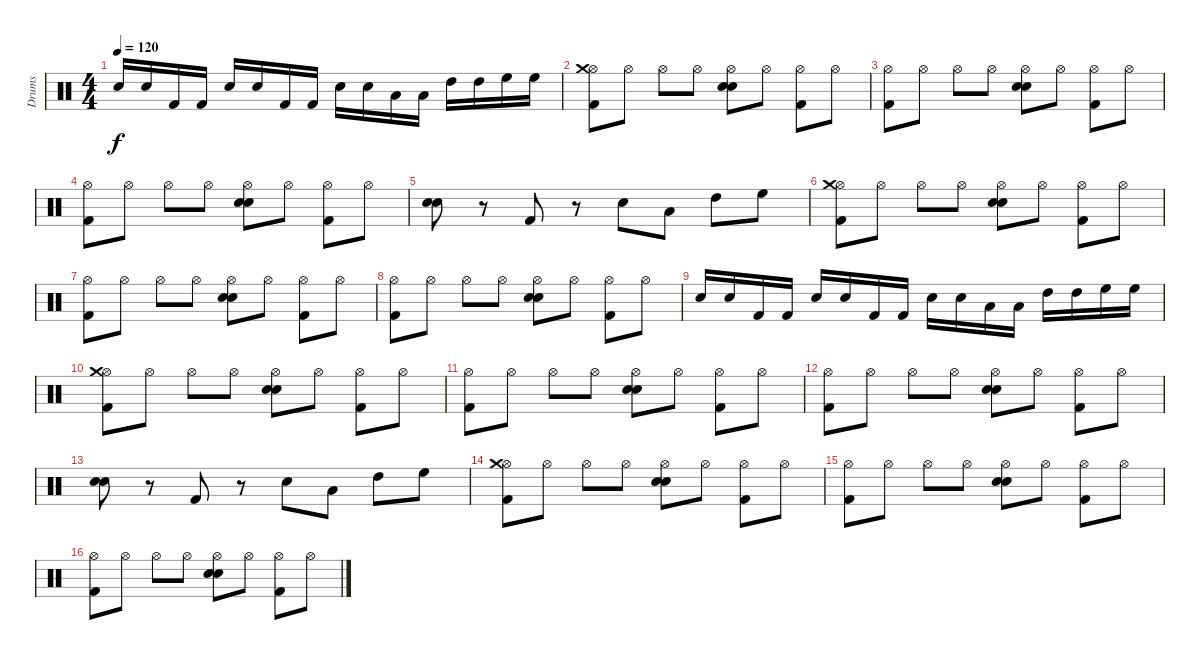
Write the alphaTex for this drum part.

\track ("Drums" "Drums") {instrument percussion}
\staff {score}
\articulation defaults
\ts (4 4)
\tempo 120
\clef neutral
\ks c "Snare (hit) 2".16{dy f} "Snare (hit) 2".16 "Kick (hit) 2".16 "Kick (hit) 2".16 "Snare (hit) 2".16 "Snare (hit) 2".16 "Kick (hit) 2".16 "Kick (hit) 2".16 "Snare (hit) 2".16 "Snare (hit) 2".16 "Low Tom (hit)".16 "Low Tom (hit)".16 "High Tom (hit)".16 "High Tom (hit)".16 "High Floor Tom (hit)".16 "High Floor Tom (hit)".16
|
("Hi-Hat (open)" "Kick (hit) 2" "Crash medium (hit)").8 "Hi-Hat (open)".8 "Hi-Hat (open)".8 "Hi-Hat (open)".8 ("Hi-Hat (open)" "Snare (hit) 2" "Electric Snare (hit)").8 "Hi-Hat (open)".8 ("Hi-Hat (open)" "Kick (hit) 2").8 "Hi-Hat (open)".8 |
("Hi-Hat (open)" "Kick (hit) 2").8 "Hi-Hat (open)".8 "Hi-Hat (open)".8 "Hi-Hat (open)".8 ("Hi-Hat (open)" "Snare (hit) 2" "Electric Snare (hit)").8 "Hi-Hat (open)".8 ("Hi-Hat (open)" "Kick (hit) 2").8 "Hi-Hat (open)".8 |
("Hi-Hat (open)" "Kick (hit) 2").8 "Hi-Hat (open)".8 "Hi-Hat (open)".8 "Hi-Hat (open)".8 ("Hi-Hat (open)" "Snare (hit) 2" "Electric Snare (hit)").8 "Hi-Hat (open)".8 ("Hi-Hat (open)" "Kick (hit) 2").8 "Hi-Hat (open)".8 |
("Snare (hit) 2" "Electric Snare (hit)").8 r.8 "Kick (hit) 2".8 r.8 "Snare (hit) 2".8 "Low Tom (hit)".8 "High Tom (hit)".8 "High Floor Tom (hit)".8 |
("Hi-Hat (open)" "Kick (hit) 2" "Crash medium (hit)").8 "Hi-Hat (open)".8 "Hi-Hat (open)".8 "Hi-Hat (open)".8 ("Hi-Hat (open)" "Snare (hit) 2" "Electric Snare (hit)").8 "Hi-Hat (open)".8 ("Hi-Hat (open)" "Kick (hit) 2").8 "Hi-Hat (open)".8 |
("Hi-Hat (open)" "Kick (hit) 2").8 "Hi-Hat (open)".8 "Hi-Hat (open)".8 "Hi-Hat (open)".8 ("Hi-Hat (open)" "Snare (hit) 2" "Electric Snare (hit)").8 "Hi-Hat (open)".8 ("Hi-Hat (open)" "Kick (hit) 2").8 "Hi-Hat (open)".8 |
("Hi-Hat (open)" "Kick (hit) 2").8 "Hi-Hat (open)".8 "Hi-Hat (open)".8 "Hi-Hat (open)".8 ("Hi-Hat (open)" "Snare (hit) 2" "Electric Snare (hit)").8 "Hi-Hat (open)".8 ("Hi-Hat (open)" "Kick (hit) 2").8 "Hi-Hat (open)".8 |
"Snare (hit) 2".16 "Snare (hit) 2".16 "Kick (hit) 2".16 "Kick (hit) 2".16 "Snare (hit) 2".16 "Snare (hit) 2".16 "Kick (hit) 2".16 "Kick (hit) 2".16 "Snare (hit) 2".16 "Snare (hit) 2".16 "Low Tom (hit)".16 "Low Tom (hit)".16 "High Tom (hit)".16 "High Tom (hit)".16 "High Floor Tom (hit)".16 "High Floor Tom (hit)".16 |
("Hi-Hat (open)" "Kick (hit) 2" "Crash medium (hit)").8 "Hi-Hat (open)".8 "Hi-Hat (open)".8 "Hi-Hat (open)".8 ("Hi-Hat (open)" "Snare (hit) 2" "Electric Snare (hit)").8 "Hi-Hat (open)".8 ("Hi-Hat (open)" "Kick (hit) 2").8 "Hi-Hat (open)".8 |
("Hi-Hat (open)" "Kick (hit) 2").8 "Hi-Hat (open)".8 "Hi-Hat (open)".8 "Hi-Hat (open)".8 ("Hi-Hat (open)" "Snare (hit) 2" "Electric Snare (hit)").8 "Hi-Hat (open)".8 ("Hi-Hat (open)" "Kick (hit) 2").8 "Hi-Hat (open)".8 |
("Hi-Hat (open)" "Kick (hit) 2").8 "Hi-Hat (open)".8 "Hi-Hat (open)".8 "Hi-Hat (open)".8 ("Hi-Hat (open)" "Snare (hit) 2" "Electric Snare (hit)").8 "Hi-Hat (open)".8 ("Hi-Hat (open)" "Kick (hit) 2").8 "Hi-Hat (open)".8 |
("Snare (hit) 2" "Electric Snare (hit)").8 r.8 "Kick (hit) 2".8 r.8 "Snare (hit) 2".8 "Low Tom (hit)".8 "High Tom (hit)".8 "High Floor Tom (hit)".8 |
("Hi-Hat (open)" "Kick (hit) 2" "Crash medium (hit)").8 "Hi-Hat (open)".8 "Hi-Hat (open)".8 "Hi-Hat (open)".8 ("Hi-Hat (open)" "Snare (hit) 2" "Electric Snare (hit)").8 "Hi-Hat (open)".8 ("Hi-Hat (open)" "Kick (hit) 2").8 "Hi-Hat (open)".8 |
("Hi-Hat (open)" "Kick (hit) 2").8 "Hi-Hat (open)".8 "Hi-Hat (open)".8 "Hi-Hat (open)".8 ("Hi-Hat (open)" "Snare (hit) 2" "Electric Snare (hit)").8 "Hi-Hat (open)".8 ("Hi-Hat (open)" "Kick (hit) 2").8 "Hi-Hat (open)".8 |
("Hi-Hat (open)" "Kick (hit) 2").8 "Hi-Hat (open)".8 "Hi-Hat (open)".8 "Hi-Hat (open)".8 ("Hi-Hat (open)" "Snare (hit) 2" "Electric Snare (hit)").8 "Hi-Hat (open)".8 ("Hi-Hat (open)" "Kick (hit) 2").8 "Hi-Hat (open)".8
